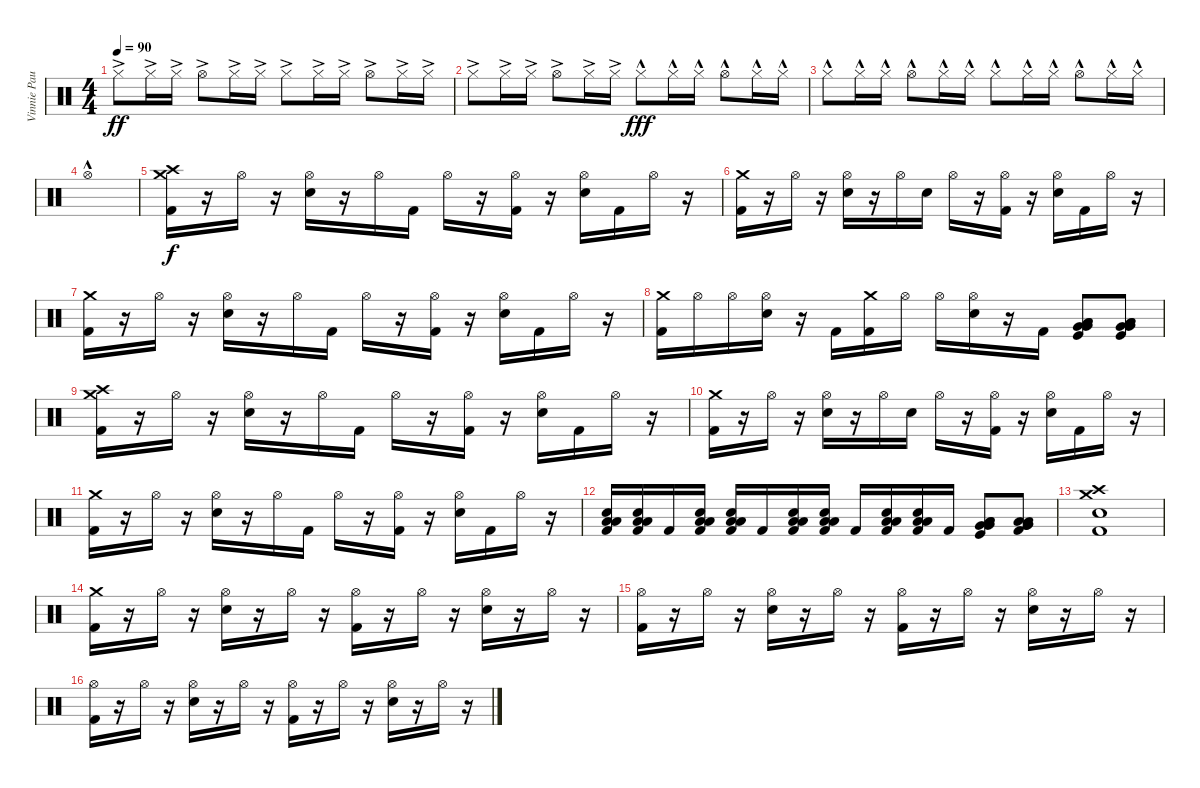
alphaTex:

\track ("Vinnie Paul" "Vinnie Pau") {instrument percussion}
\staff {score}
\articulation defaults
\ts (4 4)
\tempo 90
\clef neutral
\ks c "Hi-Hat (closed)"{ac}.8{dy ff} "Hi-Hat (closed)"{ac}.16 "Hi-Hat (closed)"{ac}.16 "Hi-Hat (open)"{ac}.8 "Hi-Hat (closed)"{ac}.16 "Hi-Hat (closed)"{ac}.16 "Hi-Hat (closed)"{ac}.8 "Hi-Hat (closed)"{ac}.16 "Hi-Hat (closed)"{ac}.16 "Hi-Hat (open)"{ac}.8 "Hi-Hat (closed)"{ac}.16 "Hi-Hat (closed)"{ac}.16
|
"Hi-Hat (closed)"{ac}.8 "Hi-Hat (closed)"{ac}.16 "Hi-Hat (closed)"{ac}.16 "Hi-Hat (open)"{ac}.8 "Hi-Hat (closed)"{ac}.16 "Hi-Hat (closed)"{ac}.16 "Hi-Hat (closed)"{hac}.8{dy fff} "Hi-Hat (closed)"{hac}.16 "Hi-Hat (closed)"{hac}.16 "Hi-Hat (open)"{hac}.8 "Hi-Hat (closed)"{hac}.16 "Hi-Hat (closed)"{hac}.16 |
"Hi-Hat (closed)"{hac}.8 "Hi-Hat (closed)"{hac}.16 "Hi-Hat (closed)"{hac}.16 "Hi-Hat (open)"{hac}.8 "Hi-Hat (closed)"{hac}.16 "Hi-Hat (closed)"{hac}.16 "Hi-Hat (closed)"{hac}.8 "Hi-Hat (closed)"{hac}.16 "Hi-Hat (closed)"{hac}.16 "Hi-Hat (open)"{hac}.8 "Hi-Hat (closed)"{hac}.16 "Hi-Hat (closed)"{hac}.16 |
"Hi-Hat (open)"{hac}.1 |
("Crash high (hit)" "Crash medium (hit)" "Kick (hit) 2").16{dy f} r.16 "Hi-Hat (open)".16 r.16 ("Hi-Hat (open)" "Snare (hit) 2").16 r.16 "Hi-Hat (open)".16 "Kick (hit) 2".16 "Hi-Hat (open)".16 r.16 ("Hi-Hat (open)" "Kick (hit) 2").16 r.16 ("Hi-Hat (open)" "Snare (hit) 2").16 "Kick (hit) 2".16 "Hi-Hat (open)".16 r.16 |
("Crash medium (hit)" "Kick (hit) 2").16 r.16 "Hi-Hat (open)".16 r.16 ("Hi-Hat (open)" "Snare (hit) 2").16 r.16 "Hi-Hat (open)".16 "Snare (hit) 2".16 "Hi-Hat (open)".16 r.16 ("Hi-Hat (open)" "Kick (hit) 2").16 r.16 ("Hi-Hat (open)" "Snare (hit) 2").16 "Kick (hit) 2".16 "Hi-Hat (open)".16 r.16 |
("Crash medium (hit)" "Kick (hit) 2").16 r.16 "Hi-Hat (open)".16 r.16 ("Hi-Hat (open)" "Snare (hit) 2").16 r.16 "Hi-Hat (open)".16 "Kick (hit) 2".16 "Hi-Hat (open)".16 r.16 ("Hi-Hat (open)" "Kick (hit) 2").16 r.16 ("Hi-Hat (open)" "Snare (hit) 2").16 "Kick (hit) 2".16 "Hi-Hat (open)".16 r.16 |
("Crash medium (hit)" "Kick (hit) 2").16 "Hi-Hat (open)".16 "Hi-Hat (open)".16 ("Hi-Hat (open)" "Snare (hit) 2").16 r.16 "Kick (hit) 2".16 ("Crash medium (hit)" "Kick (hit) 2").16 "Hi-Hat (open)".16 "Hi-Hat (open)".16 ("Hi-Hat (open)" "Snare (hit) 2").16 r.16 "Kick (hit) 2".16 ("Very Low Tom (hit)" "Very Low Tom (hit)" "Low Floor Tom (hit)" "Low Floor Tom (hit)" "Kick (hit)").8 ("Very Low Tom (hit)" "Very Low Tom (hit)" "Low Floor Tom (hit)" "Low Floor Tom (hit)" "Kick (hit)").8 |
("Crash high (hit)" "Crash medium (hit)" "Kick (hit) 2").16 r.16 "Hi-Hat (open)".16 r.16 ("Hi-Hat (open)" "Snare (hit) 2").16 r.16 "Hi-Hat (open)".16 "Kick (hit) 2".16 "Hi-Hat (open)".16 r.16 ("Hi-Hat (open)" "Kick (hit) 2").16 r.16 ("Hi-Hat (open)" "Snare (hit) 2").16 "Kick (hit) 2".16 "Hi-Hat (open)".16 r.16 |
("Crash medium (hit)" "Kick (hit) 2").16 r.16 "Hi-Hat (open)".16 r.16 ("Hi-Hat (open)" "Snare (hit) 2").16 r.16 "Hi-Hat (open)".16 "Snare (hit) 2".16 "Hi-Hat (open)".16 r.16 ("Hi-Hat (open)" "Kick (hit) 2").16 r.16 ("Hi-Hat (open)" "Snare (hit) 2").16 "Kick (hit) 2".16 "Hi-Hat (open)".16 r.16 |
("Crash medium (hit)" "Kick (hit) 2").16 r.16 "Hi-Hat (open)".16 r.16 ("Hi-Hat (open)" "Snare (hit) 2").16 r.16 "Hi-Hat (open)".16 "Kick (hit) 2".16 "Hi-Hat (open)".16 r.16 ("Hi-Hat (open)" "Kick (hit) 2").16 r.16 ("Hi-Hat (open)" "Snare (hit) 2").16 "Kick (hit) 2".16 "Hi-Hat (open)".16 r.16 |
("Low Floor Tom (hit)" "Low Floor Tom (hit)" "Snare (hit) 2" "Kick (hit) 2").16 ("Low Floor Tom (hit)" "Low Floor Tom (hit)" "Snare (hit) 2" "Kick (hit) 2").16 "Kick (hit) 2".16 ("Low Floor Tom (hit)" "Low Floor Tom (hit)" "Snare (hit) 2" "Kick (hit) 2").16 ("Low Floor Tom (hit)" "Low Floor Tom (hit)" "Snare (hit) 2" "Kick (hit) 2").16 "Kick (hit) 2".16 ("Low Floor Tom (hit)" "Low Floor Tom (hit)" "Snare (hit) 2" "Kick (hit) 2").16 ("Low Floor Tom (hit)" "Low Floor Tom (hit)" "Snare (hit) 2" "Kick (hit) 2").16 "Kick (hit) 2".16 ("Low Floor Tom (hit)" "Low Floor Tom (hit)" "Snare (hit) 2" "Kick (hit) 2").16 ("Low Floor Tom (hit)" "Low Floor Tom (hit)" "Snare (hit) 2" "Kick (hit) 2").16 "Kick (hit) 2".16 ("Very Low Tom (hit)" "Very Low Tom (hit)" "Low Floor Tom (hit)" "Low Floor Tom (hit)" "Kick (hit)").8 ("Very Low Tom (hit)" "Very Low Tom (hit)" "Low Floor Tom (hit)" "Low Floor Tom (hit)" "Kick (hit) 2").8 |
("Crash high (hit)" "Crash medium (hit)" "Snare (hit) 2" "Kick (hit) 2").1 |
("Crash medium (hit)" "Kick (hit) 2").16 r.16 "Hi-Hat (open)".16 r.16 ("Hi-Hat (open)" "Snare (hit) 2").16 r.16 "Hi-Hat (open)".16 r.16 ("Hi-Hat (open)" "Kick (hit) 2").16 r.16 "Hi-Hat (open)".16 r.16 ("Hi-Hat (open)" "Snare (hit) 2").16 r.16 "Hi-Hat (open)".16 r.16 |
("Hi-Hat (open)" "Kick (hit) 2").16 r.16 "Hi-Hat (open)".16 r.16 ("Hi-Hat (open)" "Snare (hit) 2").16 r.16 "Hi-Hat (open)".16 r.16 ("Hi-Hat (open)" "Kick (hit) 2").16 r.16 "Hi-Hat (open)".16 r.16 ("Hi-Hat (open)" "Snare (hit) 2").16 r.16 "Hi-Hat (open)".16 r.16 |
("Hi-Hat (open)" "Kick (hit) 2").16 r.16 "Hi-Hat (open)".16 r.16 ("Hi-Hat (open)" "Snare (hit) 2").16 r.16 "Hi-Hat (open)".16 r.16 ("Hi-Hat (open)" "Kick (hit) 2").16 r.16 "Hi-Hat (open)".16 r.16 ("Hi-Hat (open)" "Snare (hit) 2").16 r.16 "Hi-Hat (open)".16 r.16
